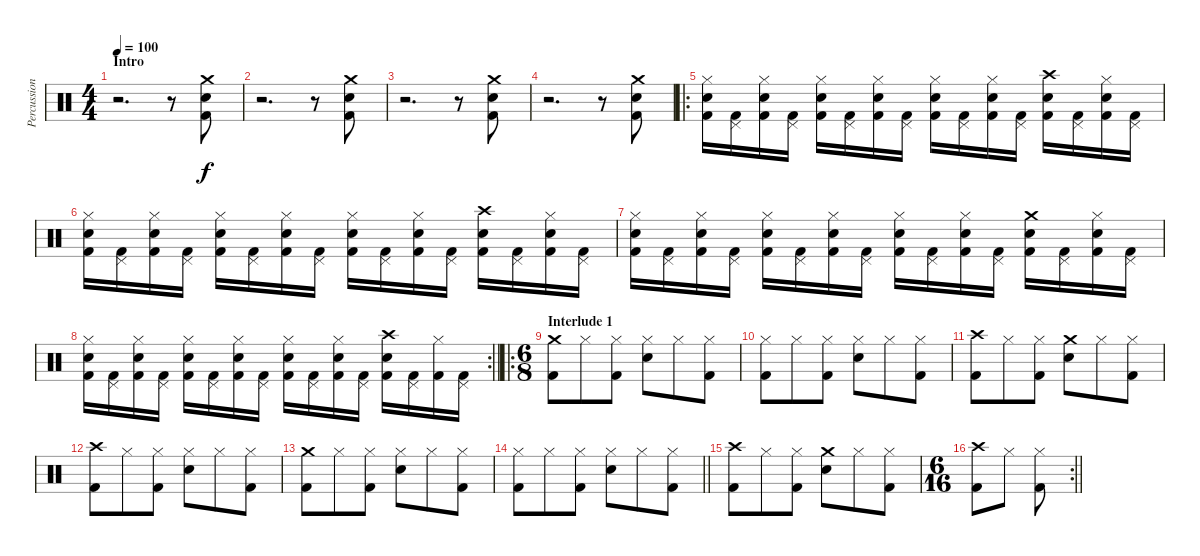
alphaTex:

\track ("Percussion" "Percussion") {instrument percussion}
\staff {score}
\articulation defaults
\ts (4 4)
\section ("" "Intro")
\tempo 100
\clef neutral
\ks c
r.2{d dy f} r.8 ("Crash medium (hit)" "Snare (hit) 2" "Kick (hit) 2").8 |
r.2{d} r.8 ("Crash medium (hit)" "Snare (hit) 2" "Kick (hit) 2").8 |
r.2{d} r.8 ("Crash medium (hit)" "Snare (hit) 2" "Kick (hit) 2").8 |
r.2{d} r.8 ("Crash medium (hit)" "Snare (hit) 2" "Kick (hit) 2").8 |
\ro
("Hi-Hat (closed)" "Snare (hit) 2" "Kick (hit) 2").16 ("Pedal Hi-Hat (hit)" "Kick (hit) 2").16 ("Hi-Hat (closed)" "Snare (hit) 2" "Kick (hit) 2").16 ("Pedal Hi-Hat (hit)" "Kick (hit) 2").16 ("Hi-Hat (closed)" "Snare (hit) 2" "Kick (hit) 2").16 ("Pedal Hi-Hat (hit)" "Kick (hit) 2").16 ("Hi-Hat (closed)" "Snare (hit) 2" "Kick (hit) 2").16 ("Pedal Hi-Hat (hit)" "Kick (hit) 2").16 ("Hi-Hat (closed)" "Snare (hit) 2" "Kick (hit) 2").16 ("Pedal Hi-Hat (hit)" "Kick (hit) 2").16 ("Hi-Hat (closed)" "Snare (hit) 2" "Kick (hit) 2").16 ("Pedal Hi-Hat (hit)" "Kick (hit) 2").16 ("Crash high (hit)" "Snare (hit) 2" "Kick (hit) 2").16 ("Pedal Hi-Hat (hit)" "Kick (hit) 2").16 ("Hi-Hat (closed)" "Snare (hit) 2" "Kick (hit) 2").16 ("Pedal Hi-Hat (hit)" "Kick (hit) 2").16 |
("Hi-Hat (closed)" "Snare (hit) 2" "Kick (hit) 2").16 ("Pedal Hi-Hat (hit)" "Kick (hit) 2").16 ("Hi-Hat (closed)" "Snare (hit) 2" "Kick (hit) 2").16 ("Pedal Hi-Hat (hit)" "Kick (hit) 2").16 ("Hi-Hat (closed)" "Snare (hit) 2" "Kick (hit) 2").16 ("Pedal Hi-Hat (hit)" "Kick (hit) 2").16 ("Hi-Hat (closed)" "Snare (hit) 2" "Kick (hit) 2").16 ("Pedal Hi-Hat (hit)" "Kick (hit) 2").16 ("Hi-Hat (closed)" "Snare (hit) 2" "Kick (hit) 2").16 ("Pedal Hi-Hat (hit)" "Kick (hit) 2").16 ("Hi-Hat (closed)" "Snare (hit) 2" "Kick (hit) 2").16 ("Pedal Hi-Hat (hit)" "Kick (hit) 2").16 ("Crash high (hit)" "Snare (hit) 2" "Kick (hit) 2").16 ("Pedal Hi-Hat (hit)" "Kick (hit) 2").16 ("Hi-Hat (closed)" "Snare (hit) 2" "Kick (hit) 2").16 ("Pedal Hi-Hat (hit)" "Kick (hit) 2").16 |
("Hi-Hat (closed)" "Snare (hit) 2" "Kick (hit) 2").16 ("Pedal Hi-Hat (hit)" "Kick (hit) 2").16 ("Hi-Hat (closed)" "Snare (hit) 2" "Kick (hit) 2").16 ("Pedal Hi-Hat (hit)" "Kick (hit) 2").16 ("Hi-Hat (closed)" "Snare (hit) 2" "Kick (hit) 2").16 ("Pedal Hi-Hat (hit)" "Kick (hit) 2").16 ("Hi-Hat (closed)" "Snare (hit) 2" "Kick (hit) 2").16 ("Pedal Hi-Hat (hit)" "Kick (hit) 2").16 ("Hi-Hat (closed)" "Snare (hit) 2" "Kick (hit) 2").16 ("Pedal Hi-Hat (hit)" "Kick (hit) 2").16 ("Hi-Hat (closed)" "Snare (hit) 2" "Kick (hit) 2").16 ("Pedal Hi-Hat (hit)" "Kick (hit) 2").16 ("Crash medium (hit)" "Snare (hit) 2" "Kick (hit) 2").16 ("Pedal Hi-Hat (hit)" "Kick (hit) 2").16 ("Hi-Hat (closed)" "Snare (hit) 2" "Kick (hit) 2").16 ("Pedal Hi-Hat (hit)" "Kick (hit) 2").16 |
\rc 2
\barLineRight lightlight
("Hi-Hat (closed)" "Snare (hit) 2" "Kick (hit) 2").16 ("Pedal Hi-Hat (hit)" "Kick (hit) 2").16 ("Hi-Hat (closed)" "Snare (hit) 2" "Kick (hit) 2").16 ("Pedal Hi-Hat (hit)" "Kick (hit) 2").16 ("Hi-Hat (closed)" "Snare (hit) 2" "Kick (hit) 2").16 ("Pedal Hi-Hat (hit)" "Kick (hit) 2").16 ("Hi-Hat (closed)" "Snare (hit) 2" "Kick (hit) 2").16 ("Pedal Hi-Hat (hit)" "Kick (hit) 2").16 ("Hi-Hat (closed)" "Snare (hit) 2" "Kick (hit) 2").16 ("Pedal Hi-Hat (hit)" "Kick (hit) 2").16 ("Hi-Hat (closed)" "Snare (hit) 2" "Kick (hit) 2").16 ("Pedal Hi-Hat (hit)" "Kick (hit) 2").16 ("Crash high (hit)" "Snare (hit) 2" "Kick (hit) 2").16 ("Pedal Hi-Hat (hit)" "Kick (hit) 2").16 ("Hi-Hat (closed)" "Kick (hit) 2").16 ("Pedal Hi-Hat (hit)" "Kick (hit) 2").16 |
\ro
\ts (6 8)
\section ("" "Interlude 1")
("Crash medium (hit)" "Kick (hit) 2").8 "Hi-Hat (closed)".8 ("Hi-Hat (closed)" "Kick (hit) 2").8 ("Hi-Hat (closed)" "Snare (hit) 2").8 "Hi-Hat (closed)".8 ("Hi-Hat (closed)" "Kick (hit) 2").8 |
("Hi-Hat (closed)" "Kick (hit) 2").8 "Hi-Hat (closed)".8 ("Hi-Hat (closed)" "Kick (hit) 2").8 ("Hi-Hat (closed)" "Snare (hit) 2").8 "Hi-Hat (closed)".8 ("Hi-Hat (closed)" "Kick (hit) 2").8 |
("Crash high (hit)" "Kick (hit) 2").8 "Hi-Hat (closed)".8 ("Hi-Hat (closed)" "Kick (hit) 2").8 ("Crash medium (hit)" "Snare (hit) 2").8 "Hi-Hat (closed)".8 ("Hi-Hat (closed)" "Kick (hit) 2").8 |
("Crash high (hit)" "Kick (hit) 2").8 "Hi-Hat (closed)".8 ("Hi-Hat (closed)" "Kick (hit) 2").8 ("Hi-Hat (closed)" "Snare (hit) 2").8 "Hi-Hat (closed)".8 ("Hi-Hat (closed)" "Kick (hit) 2").8 |
("Crash medium (hit)" "Kick (hit) 2").8 "Hi-Hat (closed)".8 ("Hi-Hat (closed)" "Kick (hit) 2").8 ("Hi-Hat (closed)" "Snare (hit) 2").8 "Hi-Hat (closed)".8 ("Hi-Hat (closed)" "Kick (hit) 2").8 |
\barLineRight lightlight
("Hi-Hat (closed)" "Kick (hit) 2").8 "Hi-Hat (closed)".8 ("Hi-Hat (closed)" "Kick (hit) 2").8 ("Hi-Hat (closed)" "Snare (hit) 2").8 "Hi-Hat (closed)".8 ("Hi-Hat (closed)" "Kick (hit) 2").8 |
("Crash high (hit)" "Kick (hit) 2").8 "Hi-Hat (closed)".8 ("Hi-Hat (closed)" "Kick (hit) 2").8 ("Crash medium (hit)" "Snare (hit) 2").8 "Hi-Hat (closed)".8 ("Hi-Hat (closed)" "Kick (hit) 2").8 |
\rc 2
\ts (6 16)
\barLineRight lightlight
("Crash high (hit)" "Kick (hit) 2").8 "Hi-Hat (closed)".8 ("Hi-Hat (closed)" "Kick (hit) 2").8
